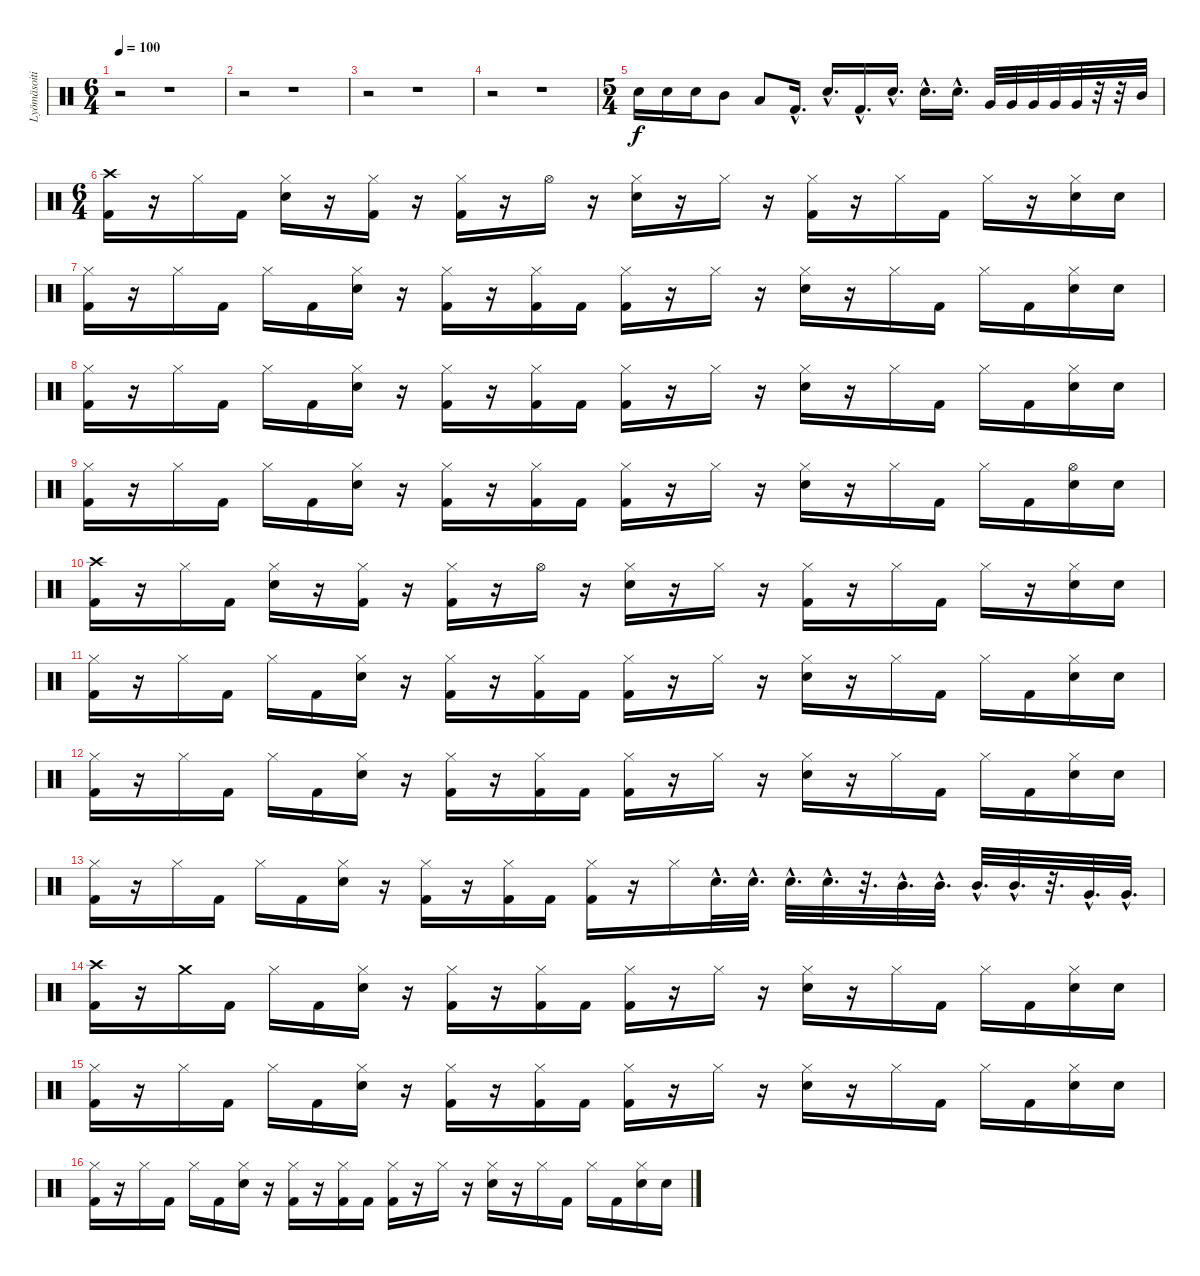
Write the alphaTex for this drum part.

\track ("Lyömäsoitin" "Lyömäsoiti") {instrument percussion}
\staff {score}
\articulation defaults
\ts (6 4)
\tempo 100
\clef neutral
\ks c
r.2{dy f} r.1 |
r.2 r.1 |
r.2 r.1 |
r.2 r.1 |
\ts (5 4)
"Snare (hit) 2".16 "Snare (hit) 2".16 "Snare (hit) 2".16 "Mid Tom (hit)".8 "Low Tom (hit)".8 "Kick (hit) 2"{hac}.16{d} "Snare (hit) 2"{hac}.16{d} "Kick (hit) 2"{hac}.16{d} "Snare (hit) 2"{hac}.16{d} "Snare (hit) 2"{hac}.16{d} "Snare (hit) 2"{hac}.16{d} "Very Low Tom (hit)".32 "Very Low Tom (hit)".32 "Very Low Tom (hit)".32 "Very Low Tom (hit)".32 "Very Low Tom (hit)".32 r.32 r.32 "Mid Tom (hit)".32 |
\ts (6 4)
("Crash high (hit)" "Kick (hit) 2").16 r.16 "Hi-Hat (closed)".16 "Kick (hit) 2".16 ("Hi-Hat (closed)" "Snare (hit) 2").16 r.16 ("Hi-Hat (closed)" "Kick (hit) 2").16 r.16 ("Hi-Hat (closed)" "Kick (hit) 2").16 r.16 "Hi-Hat (open)".16 r.16 ("Hi-Hat (closed)" "Snare (hit) 2").16 r.16 "Hi-Hat (closed)".16 r.16 ("Hi-Hat (closed)" "Kick (hit) 2").16 r.16 "Hi-Hat (closed)".16 "Kick (hit) 2".16 "Hi-Hat (closed)".16 r.16 ("Hi-Hat (closed)" "Snare (hit) 2").16 "Snare (hit) 2".16 |
("Hi-Hat (closed)" "Kick (hit) 2").16 r.16 "Hi-Hat (closed)".16 "Kick (hit) 2".16 "Hi-Hat (closed)".16 "Kick (hit) 2".16 ("Hi-Hat (closed)" "Snare (hit) 2").16 r.16 ("Hi-Hat (closed)" "Kick (hit) 2").16 r.16 ("Hi-Hat (closed)" "Kick (hit) 2").16 "Kick (hit) 2".16 ("Hi-Hat (closed)" "Kick (hit) 2").16 r.16 "Hi-Hat (closed)".16 r.16 ("Hi-Hat (closed)" "Snare (hit) 2").16 r.16 "Hi-Hat (closed)".16 "Kick (hit) 2".16 "Hi-Hat (closed)".16 "Kick (hit) 2".16 ("Hi-Hat (closed)" "Snare (hit) 2").16 "Snare (hit) 2".16 |
("Hi-Hat (closed)" "Kick (hit) 2").16 r.16 "Hi-Hat (closed)".16 "Kick (hit) 2".16 "Hi-Hat (closed)".16 "Kick (hit) 2".16 ("Hi-Hat (closed)" "Snare (hit) 2").16 r.16 ("Hi-Hat (closed)" "Kick (hit) 2").16 r.16 ("Hi-Hat (closed)" "Kick (hit) 2").16 "Kick (hit) 2".16 ("Hi-Hat (closed)" "Kick (hit) 2").16 r.16 "Hi-Hat (closed)".16 r.16 ("Hi-Hat (closed)" "Snare (hit) 2").16 r.16 "Hi-Hat (closed)".16 "Kick (hit) 2".16 "Hi-Hat (closed)".16 "Kick (hit) 2".16 ("Hi-Hat (closed)" "Snare (hit) 2").16 "Snare (hit) 2".16 |
("Hi-Hat (closed)" "Kick (hit) 2").16 r.16 "Hi-Hat (closed)".16 "Kick (hit) 2".16 "Hi-Hat (closed)".16 "Kick (hit) 2".16 ("Hi-Hat (closed)" "Snare (hit) 2").16 r.16 ("Hi-Hat (closed)" "Kick (hit) 2").16 r.16 ("Hi-Hat (closed)" "Kick (hit) 2").16 "Kick (hit) 2".16 ("Hi-Hat (closed)" "Kick (hit) 2").16 r.16 "Hi-Hat (closed)".16 r.16 ("Hi-Hat (closed)" "Snare (hit) 2").16 r.16 "Hi-Hat (closed)".16 "Kick (hit) 2".16 "Hi-Hat (closed)".16 "Kick (hit) 2".16 ("Hi-Hat (open)" "Snare (hit) 2").16 "Snare (hit) 2".16 |
("Crash high (hit)" "Kick (hit) 2").16 r.16 "Hi-Hat (closed)".16 "Kick (hit) 2".16 ("Hi-Hat (closed)" "Snare (hit) 2").16 r.16 ("Hi-Hat (closed)" "Kick (hit) 2").16 r.16 ("Hi-Hat (closed)" "Kick (hit) 2").16 r.16 "Hi-Hat (open)".16 r.16 ("Hi-Hat (closed)" "Snare (hit) 2").16 r.16 "Hi-Hat (closed)".16 r.16 ("Hi-Hat (closed)" "Kick (hit) 2").16 r.16 "Hi-Hat (closed)".16 "Kick (hit) 2".16 "Hi-Hat (closed)".16 r.16 ("Hi-Hat (closed)" "Snare (hit) 2").16 "Snare (hit) 2".16 |
("Hi-Hat (closed)" "Kick (hit) 2").16 r.16 "Hi-Hat (closed)".16 "Kick (hit) 2".16 "Hi-Hat (closed)".16 "Kick (hit) 2".16 ("Hi-Hat (closed)" "Snare (hit) 2").16 r.16 ("Hi-Hat (closed)" "Kick (hit) 2").16 r.16 ("Hi-Hat (closed)" "Kick (hit) 2").16 "Kick (hit) 2".16 ("Hi-Hat (closed)" "Kick (hit) 2").16 r.16 "Hi-Hat (closed)".16 r.16 ("Hi-Hat (closed)" "Snare (hit) 2").16 r.16 "Hi-Hat (closed)".16 "Kick (hit) 2".16 "Hi-Hat (closed)".16 "Kick (hit) 2".16 ("Hi-Hat (closed)" "Snare (hit) 2").16 "Snare (hit) 2".16 |
("Hi-Hat (closed)" "Kick (hit) 2").16 r.16 "Hi-Hat (closed)".16 "Kick (hit) 2".16 "Hi-Hat (closed)".16 "Kick (hit) 2".16 ("Hi-Hat (closed)" "Snare (hit) 2").16 r.16 ("Hi-Hat (closed)" "Kick (hit) 2").16 r.16 ("Hi-Hat (closed)" "Kick (hit) 2").16 "Kick (hit) 2".16 ("Hi-Hat (closed)" "Kick (hit) 2").16 r.16 "Hi-Hat (closed)".16 r.16 ("Hi-Hat (closed)" "Snare (hit) 2").16 r.16 "Hi-Hat (closed)".16 "Kick (hit) 2".16 "Hi-Hat (closed)".16 "Kick (hit) 2".16 ("Hi-Hat (closed)" "Snare (hit) 2").16 "Snare (hit) 2".16 |
("Hi-Hat (closed)" "Kick (hit) 2").16 r.16 "Hi-Hat (closed)".16 "Kick (hit) 2".16 "Hi-Hat (closed)".16 "Kick (hit) 2".16 ("Hi-Hat (closed)" "Snare (hit) 2").16 r.16 ("Hi-Hat (closed)" "Kick (hit) 2").16 r.16 ("Hi-Hat (closed)" "Kick (hit) 2").16 "Kick (hit) 2".16 ("Hi-Hat (closed)" "Kick (hit) 2").16 r.16 "Hi-Hat (closed)".16 "Snare (hit) 2"{hac}.32{d} "Snare (hit) 2"{hac}.32{d} "Snare (hit) 2"{hac}.32{d} "Snare (hit) 2"{hac}.32{d} r.32{d} "Mid Tom (hit)"{hac}.32{d} "Mid Tom (hit)"{hac}.32{d} "Mid Tom (hit)"{hac}.32{d} "Mid Tom (hit)"{hac}.32{d} r.32{d} "Very Low Tom (hit)"{hac}.32{d} "Very Low Tom (hit)"{hac}.32{d} |
("Crash high (hit)" "Kick (hit) 2").16 r.16 "Crash medium (hit)".16 "Kick (hit) 2".16 "Hi-Hat (closed)".16 "Kick (hit) 2".16 ("Hi-Hat (closed)" "Snare (hit) 2").16 r.16 ("Hi-Hat (closed)" "Kick (hit) 2").16 r.16 ("Hi-Hat (closed)" "Kick (hit) 2").16 "Kick (hit) 2".16 ("Hi-Hat (closed)" "Kick (hit) 2").16 r.16 "Hi-Hat (closed)".16 r.16 ("Hi-Hat (closed)" "Snare (hit) 2").16 r.16 "Hi-Hat (closed)".16 "Kick (hit) 2".16 "Hi-Hat (closed)".16 "Kick (hit) 2".16 ("Hi-Hat (closed)" "Snare (hit) 2").16 "Snare (hit) 2".16 |
("Hi-Hat (closed)" "Kick (hit) 2").16 r.16 "Hi-Hat (closed)".16 "Kick (hit) 2".16 "Hi-Hat (closed)".16 "Kick (hit) 2".16 ("Hi-Hat (closed)" "Snare (hit) 2").16 r.16 ("Hi-Hat (closed)" "Kick (hit) 2").16 r.16 ("Hi-Hat (closed)" "Kick (hit) 2").16 "Kick (hit) 2".16 ("Hi-Hat (closed)" "Kick (hit) 2").16 r.16 "Hi-Hat (closed)".16 r.16 ("Hi-Hat (closed)" "Snare (hit) 2").16 r.16 "Hi-Hat (closed)".16 "Kick (hit) 2".16 "Hi-Hat (closed)".16 "Kick (hit) 2".16 ("Hi-Hat (closed)" "Snare (hit) 2").16 "Snare (hit) 2".16 |
("Hi-Hat (closed)" "Kick (hit) 2").16 r.16 "Hi-Hat (closed)".16 "Kick (hit) 2".16 "Hi-Hat (closed)".16 "Kick (hit) 2".16 ("Hi-Hat (closed)" "Snare (hit) 2").16 r.16 ("Hi-Hat (closed)" "Kick (hit) 2").16 r.16 ("Hi-Hat (closed)" "Kick (hit) 2").16 "Kick (hit) 2".16 ("Hi-Hat (closed)" "Kick (hit) 2").16 r.16 "Hi-Hat (closed)".16 r.16 ("Hi-Hat (closed)" "Snare (hit) 2").16 r.16 "Hi-Hat (closed)".16 "Kick (hit) 2".16 "Hi-Hat (closed)".16 "Kick (hit) 2".16 ("Hi-Hat (closed)" "Snare (hit) 2").16 "Snare (hit) 2".16
